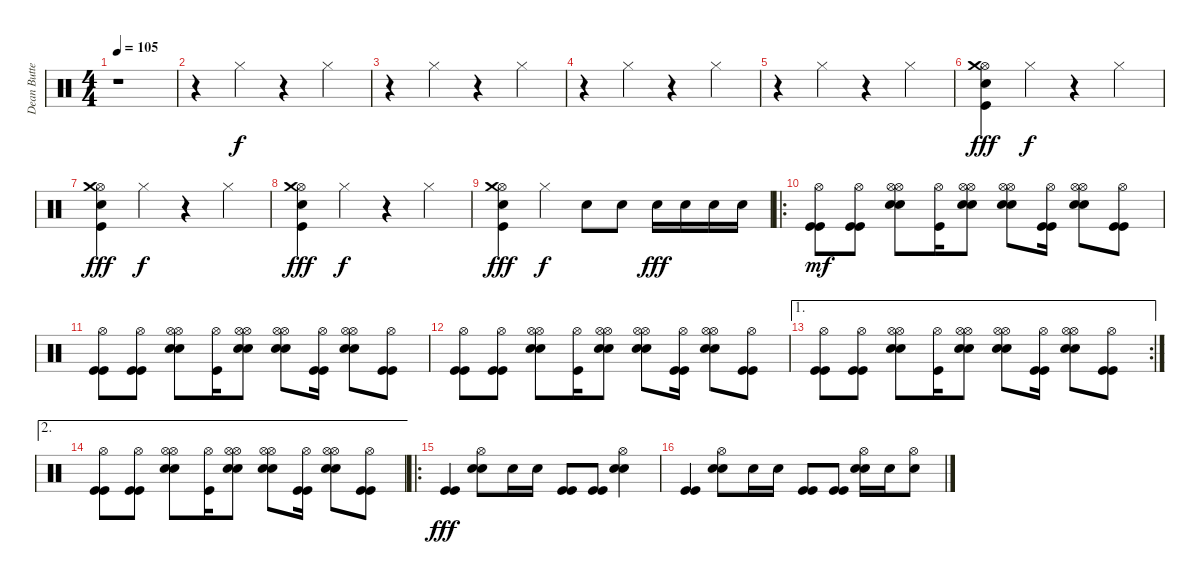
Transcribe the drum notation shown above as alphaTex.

\track ("Dean Butterworth" "Dean Butte") {instrument percussion}
\staff {score}
\articulation defaults
\ts (4 4)
\tempo 105
\clef neutral
\ks c
r.1{dy f} |
r.4 "Hi-Hat (closed)".4 r.4 "Hi-Hat (closed)".4 |
r.4 "Hi-Hat (closed)".4 r.4 "Hi-Hat (closed)".4 |
r.4 "Hi-Hat (closed)".4 r.4 "Hi-Hat (closed)".4 |
r.4 "Hi-Hat (closed)".4 r.4 "Hi-Hat (closed)".4 |
("Hi-Hat (open)" "Snare (hit) 2" "Kick (hit)" "Crash medium (hit)").4{dy fff} "Hi-Hat (closed)".4{dy f} r.4 "Hi-Hat (closed)".4 |
("Hi-Hat (open)" "Snare (hit) 2" "Kick (hit)" "Crash medium (hit)").4{dy fff} "Hi-Hat (closed)".4{dy f} r.4 "Hi-Hat (closed)".4 |
("Hi-Hat (open)" "Snare (hit) 2" "Kick (hit)" "Crash medium (hit)").4{dy fff} "Hi-Hat (closed)".4{dy f} r.4 "Hi-Hat (closed)".4 |
("Hi-Hat (open)" "Snare (hit) 2" "Kick (hit)" "Crash medium (hit)").4{dy fff} "Hi-Hat (closed)".4{dy f} "Snare (hit) 2".8 "Snare (hit) 2".8 "Snare (hit) 2".16{dy fff} "Snare (hit) 2".16 "Snare (hit) 2".16 "Snare (hit) 2".16 |
\ro
("Kick (hit)" "Kick (hit)" "Hi-Hat (open)").8{dy mf} ("Kick (hit)" "Kick (hit)" "Hi-Hat (open)").8 ("Electric Snare (hit)" "Snare (hit) 2" "Hi-Hat (open)" "Hi-Hat (open)").8 ("Kick (hit)" "Hi-Hat (open)").16 ("Electric Snare (hit)" "Snare (hit) 2" "Hi-Hat (open)" "Hi-Hat (open)").8 ("Electric Snare (hit)" "Snare (hit) 2" "Hi-Hat (open)" "Hi-Hat (open)").8 ("Kick (hit)" "Kick (hit)" "Hi-Hat (open)").16 ("Electric Snare (hit)" "Snare (hit) 2" "Hi-Hat (open)" "Hi-Hat (open)").8 ("Kick (hit)" "Kick (hit)" "Hi-Hat (open)").8 |
("Kick (hit)" "Kick (hit)" "Hi-Hat (open)").8 ("Kick (hit)" "Kick (hit)" "Hi-Hat (open)").8 ("Electric Snare (hit)" "Snare (hit) 2" "Hi-Hat (open)" "Hi-Hat (open)").8 ("Kick (hit)" "Hi-Hat (open)").16 ("Electric Snare (hit)" "Snare (hit) 2" "Hi-Hat (open)" "Hi-Hat (open)").8 ("Electric Snare (hit)" "Snare (hit) 2" "Hi-Hat (open)" "Hi-Hat (open)").8 ("Kick (hit)" "Kick (hit)" "Hi-Hat (open)").16 ("Electric Snare (hit)" "Snare (hit) 2" "Hi-Hat (open)" "Hi-Hat (open)").8 ("Kick (hit)" "Kick (hit)" "Hi-Hat (open)").8 |
("Kick (hit)" "Kick (hit)" "Hi-Hat (open)").8 ("Kick (hit)" "Kick (hit)" "Hi-Hat (open)").8 ("Electric Snare (hit)" "Snare (hit) 2" "Hi-Hat (open)" "Hi-Hat (open)").8 ("Kick (hit)" "Hi-Hat (open)").16 ("Electric Snare (hit)" "Snare (hit) 2" "Hi-Hat (open)" "Hi-Hat (open)").8 ("Electric Snare (hit)" "Snare (hit) 2" "Hi-Hat (open)" "Hi-Hat (open)").8 ("Kick (hit)" "Kick (hit)" "Hi-Hat (open)").16 ("Electric Snare (hit)" "Snare (hit) 2" "Hi-Hat (open)" "Hi-Hat (open)").8 ("Kick (hit)" "Kick (hit)" "Hi-Hat (open)").8 |
\ae 1
\rc 2
("Kick (hit)" "Kick (hit)" "Hi-Hat (open)").8 ("Kick (hit)" "Kick (hit)" "Hi-Hat (open)").8 ("Electric Snare (hit)" "Snare (hit) 2" "Hi-Hat (open)" "Hi-Hat (open)").8 ("Kick (hit)" "Hi-Hat (open)").16 ("Electric Snare (hit)" "Snare (hit) 2" "Hi-Hat (open)" "Hi-Hat (open)").8 ("Electric Snare (hit)" "Snare (hit) 2" "Hi-Hat (open)" "Hi-Hat (open)").8 ("Kick (hit)" "Kick (hit)" "Hi-Hat (open)").16 ("Electric Snare (hit)" "Snare (hit) 2" "Hi-Hat (open)" "Hi-Hat (open)").8 ("Kick (hit)" "Kick (hit)" "Hi-Hat (open)").8 |
\ae 2
("Kick (hit)" "Kick (hit)" "Hi-Hat (open)").8 ("Kick (hit)" "Kick (hit)" "Hi-Hat (open)").8 ("Electric Snare (hit)" "Snare (hit) 2" "Hi-Hat (open)" "Hi-Hat (open)").8 ("Kick (hit)" "Hi-Hat (open)").16 ("Electric Snare (hit)" "Snare (hit) 2" "Hi-Hat (open)" "Hi-Hat (open)").8 ("Electric Snare (hit)" "Snare (hit) 2" "Hi-Hat (open)" "Hi-Hat (open)").8 ("Kick (hit)" "Kick (hit)" "Hi-Hat (open)").16 ("Electric Snare (hit)" "Snare (hit) 2" "Hi-Hat (open)" "Hi-Hat (open)").8 ("Kick (hit)" "Kick (hit)" "Hi-Hat (open)").8 |
\ro
("Kick (hit)" "Kick (hit)").4{dy fff} ("Electric Snare (hit)" "Snare (hit) 2" "Hi-Hat (open)").8 "Snare (hit) 2".16 "Snare (hit) 2".16 ("Kick (hit)" "Kick (hit)").8 ("Kick (hit)" "Kick (hit)").8 ("Electric Snare (hit)" "Snare (hit) 2" "Hi-Hat (open)").4 |
("Kick (hit)" "Kick (hit)").4 ("Electric Snare (hit)" "Snare (hit) 2" "Hi-Hat (open)").8 "Snare (hit) 2".16 "Snare (hit) 2".16 ("Kick (hit)" "Kick (hit)").8 ("Kick (hit)" "Kick (hit)").8 ("Electric Snare (hit)" "Snare (hit) 2" "Hi-Hat (open)").16 "Snare (hit) 2".16 ("Snare (hit) 2" "Hi-Hat (open)").8
